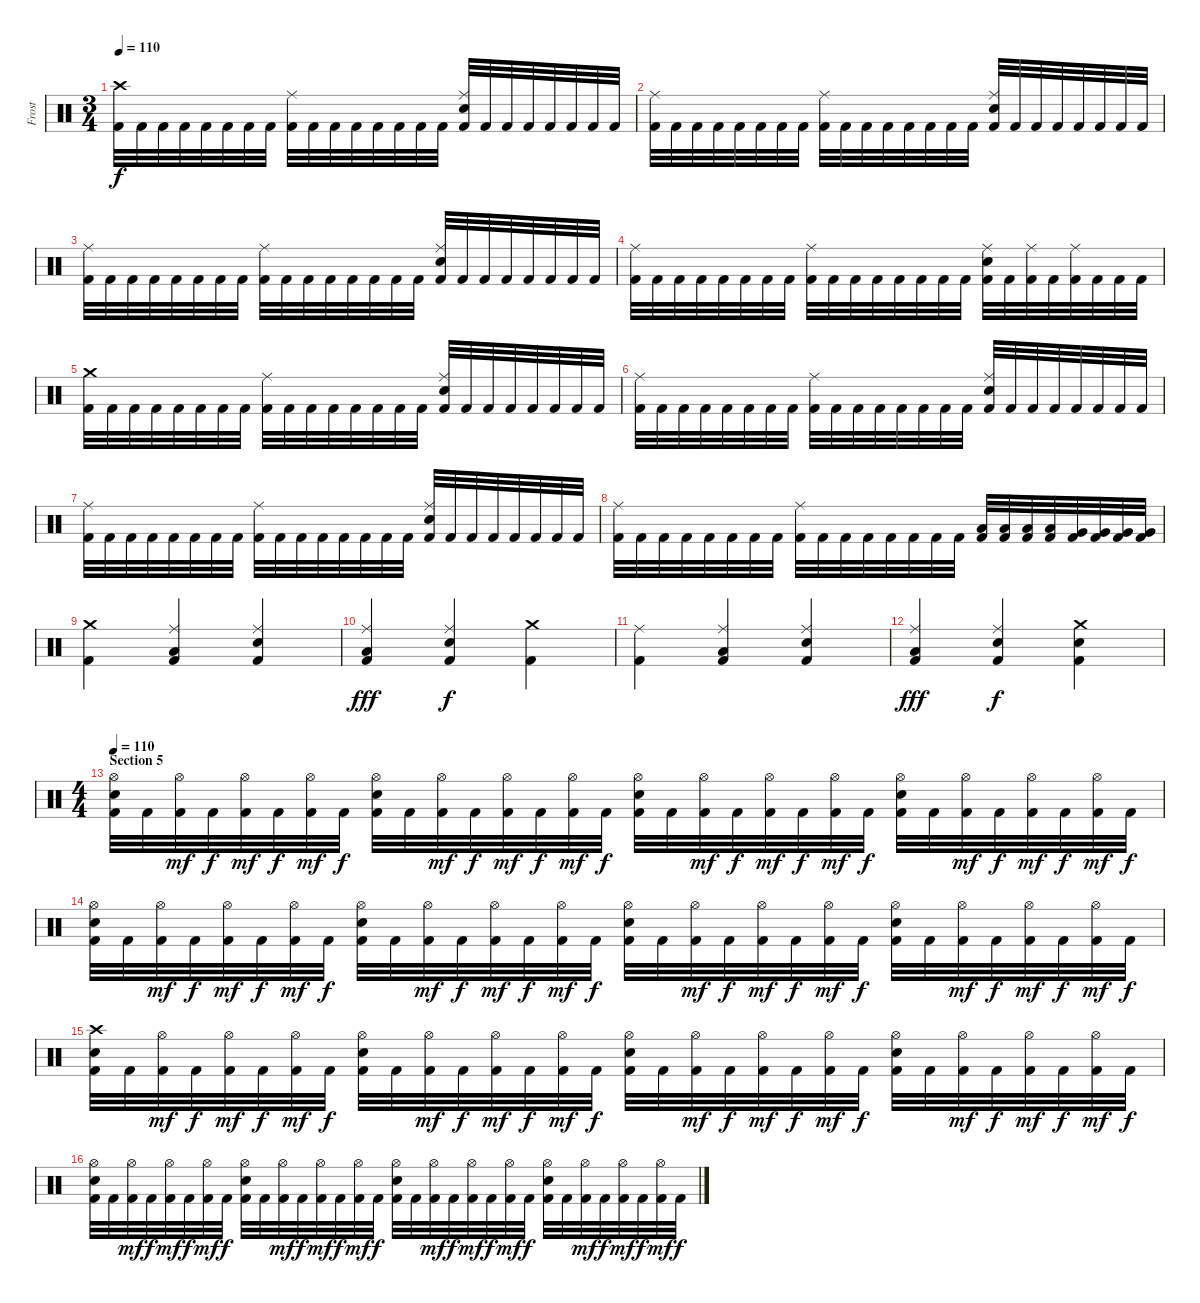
\track ("Frost" "Frost") {instrument percussion}
\staff {score}
\articulation defaults
\ts (3 4)
\tempo 110
\clef neutral
\ks c
("Crash high (hit)" "Kick (hit) 2").32{dy f} "Kick (hit) 2".32 "Kick (hit) 2".32 "Kick (hit) 2".32 "Kick (hit) 2".32 "Kick (hit) 2".32 "Kick (hit) 2".32 "Kick (hit) 2".32 ("Ride (middle)" "Kick (hit) 2").32 "Kick (hit) 2".32 "Kick (hit) 2".32 "Kick (hit) 2".32 "Kick (hit) 2".32 "Kick (hit) 2".32 "Kick (hit) 2".32 "Kick (hit) 2".32 ("Ride (middle)" "Electric Snare (hit)" "Kick (hit) 2").32 "Kick (hit) 2".32 "Kick (hit) 2".32 "Kick (hit) 2".32 "Kick (hit) 2".32 "Kick (hit) 2".32 "Kick (hit) 2".32 "Kick (hit) 2".32 |
("Ride (middle)" "Kick (hit) 2").32 "Kick (hit) 2".32 "Kick (hit) 2".32 "Kick (hit) 2".32 "Kick (hit) 2".32 "Kick (hit) 2".32 "Kick (hit) 2".32 "Kick (hit) 2".32 ("Ride (middle)" "Kick (hit) 2").32 "Kick (hit) 2".32 "Kick (hit) 2".32 "Kick (hit) 2".32 "Kick (hit) 2".32 "Kick (hit) 2".32 "Kick (hit) 2".32 "Kick (hit) 2".32 ("Ride (middle)" "Electric Snare (hit)" "Kick (hit) 2").32 "Kick (hit) 2".32 "Kick (hit) 2".32 "Kick (hit) 2".32 "Kick (hit) 2".32 "Kick (hit) 2".32 "Kick (hit) 2".32 "Kick (hit) 2".32 |
("Ride (middle)" "Kick (hit) 2").32 "Kick (hit) 2".32 "Kick (hit) 2".32 "Kick (hit) 2".32 "Kick (hit) 2".32 "Kick (hit) 2".32 "Kick (hit) 2".32 "Kick (hit) 2".32 ("Ride (middle)" "Kick (hit) 2").32 "Kick (hit) 2".32 "Kick (hit) 2".32 "Kick (hit) 2".32 "Kick (hit) 2".32 "Kick (hit) 2".32 "Kick (hit) 2".32 "Kick (hit) 2".32 ("Ride (middle)" "Electric Snare (hit)" "Kick (hit) 2").32 "Kick (hit) 2".32 "Kick (hit) 2".32 "Kick (hit) 2".32 "Kick (hit) 2".32 "Kick (hit) 2".32 "Kick (hit) 2".32 "Kick (hit) 2".32 |
("Ride (middle)" "Kick (hit) 2").32 "Kick (hit) 2".32 "Kick (hit) 2".32 "Kick (hit) 2".32 "Kick (hit) 2".32 "Kick (hit) 2".32 "Kick (hit) 2".32 "Kick (hit) 2".32 ("Ride (middle)" "Kick (hit) 2").32 "Kick (hit) 2".32 "Kick (hit) 2".32 "Kick (hit) 2".32 "Kick (hit) 2".32 "Kick (hit) 2".32 "Kick (hit) 2".32 "Kick (hit) 2".32 ("Ride (middle)" "Electric Snare (hit)" "Kick (hit) 2").32 "Kick (hit) 2".32 ("Ride (middle)" "Kick (hit) 2").32 "Kick (hit) 2".32 ("Ride (middle)" "Kick (hit) 2").32 "Kick (hit) 2".32 "Kick (hit) 2".32 "Kick (hit) 2".32 |
("Crash medium (hit)" "Kick (hit) 2").32 "Kick (hit) 2".32 "Kick (hit) 2".32 "Kick (hit) 2".32 "Kick (hit) 2".32 "Kick (hit) 2".32 "Kick (hit) 2".32 "Kick (hit) 2".32 ("Ride (middle)" "Kick (hit) 2").32 "Kick (hit) 2".32 "Kick (hit) 2".32 "Kick (hit) 2".32 "Kick (hit) 2".32 "Kick (hit) 2".32 "Kick (hit) 2".32 "Kick (hit) 2".32 ("Ride (middle)" "Electric Snare (hit)" "Kick (hit) 2").32 "Kick (hit) 2".32 "Kick (hit) 2".32 "Kick (hit) 2".32 "Kick (hit) 2".32 "Kick (hit) 2".32 "Kick (hit) 2".32 "Kick (hit) 2".32 |
("Ride (middle)" "Kick (hit) 2").32 "Kick (hit) 2".32 "Kick (hit) 2".32 "Kick (hit) 2".32 "Kick (hit) 2".32 "Kick (hit) 2".32 "Kick (hit) 2".32 "Kick (hit) 2".32 ("Ride (middle)" "Kick (hit) 2").32 "Kick (hit) 2".32 "Kick (hit) 2".32 "Kick (hit) 2".32 "Kick (hit) 2".32 "Kick (hit) 2".32 "Kick (hit) 2".32 "Kick (hit) 2".32 ("Ride (middle)" "Electric Snare (hit)" "Kick (hit) 2").32 "Kick (hit) 2".32 "Kick (hit) 2".32 "Kick (hit) 2".32 "Kick (hit) 2".32 "Kick (hit) 2".32 "Kick (hit) 2".32 "Kick (hit) 2".32 |
("Ride (middle)" "Kick (hit) 2").32 "Kick (hit) 2".32 "Kick (hit) 2".32 "Kick (hit) 2".32 "Kick (hit) 2".32 "Kick (hit) 2".32 "Kick (hit) 2".32 "Kick (hit) 2".32 ("Ride (middle)" "Kick (hit) 2").32 "Kick (hit) 2".32 "Kick (hit) 2".32 "Kick (hit) 2".32 "Kick (hit) 2".32 "Kick (hit) 2".32 "Kick (hit) 2".32 "Kick (hit) 2".32 ("Ride (middle)" "Electric Snare (hit)" "Kick (hit) 2").32 "Kick (hit) 2".32 "Kick (hit) 2".32 "Kick (hit) 2".32 "Kick (hit) 2".32 "Kick (hit) 2".32 "Kick (hit) 2".32 "Kick (hit) 2".32 |
("Ride (middle)" "Kick (hit) 2").32 "Kick (hit) 2".32 "Kick (hit) 2".32 "Kick (hit) 2".32 "Kick (hit) 2".32 "Kick (hit) 2".32 "Kick (hit) 2".32 "Kick (hit) 2".32 ("Ride (middle)" "Kick (hit) 2").32 "Kick (hit) 2".32 "Kick (hit) 2".32 "Kick (hit) 2".32 "Kick (hit) 2".32 "Kick (hit) 2".32 "Kick (hit) 2".32 "Kick (hit) 2".32 ("Low Tom (hit)" "Kick (hit) 2").32 ("Low Tom (hit)" "Kick (hit) 2").32 ("Low Tom (hit)" "Kick (hit) 2").32 ("Low Tom (hit)" "Kick (hit) 2").32 ("Very Low Tom (hit)" "Kick (hit) 2").32 ("Very Low Tom (hit)" "Kick (hit) 2").32 ("Very Low Tom (hit)" "Kick (hit) 2").32 ("Very Low Tom (hit)" "Kick (hit) 2").32 |
("Crash medium (hit)" "Kick (hit) 2").4 ("Ride (middle)" "Low Floor Tom (hit)" "Kick (hit) 2").4 ("Ride (middle)" "Electric Snare (hit)" "Kick (hit) 2").4 |
("Ride (middle)" "Low Floor Tom (hit)" "Kick (hit) 2").4{dy fff} ("Ride (middle)" "Electric Snare (hit)" "Kick (hit) 2").4{dy f} ("Crash medium (hit)" "Kick (hit) 2").4 |
("Ride (middle)" "Kick (hit) 2").4 ("Ride (middle)" "Low Floor Tom (hit)" "Kick (hit) 2").4 ("Ride (middle)" "Electric Snare (hit)" "Kick (hit) 2").4 |
("Ride (middle)" "Low Floor Tom (hit)" "Kick (hit) 2").4{dy fff} ("Ride (middle)" "Electric Snare (hit)" "Kick (hit) 2").4{dy f} ("Crash medium (hit)" "Electric Snare (hit)" "Kick (hit) 2").4 |
\ts (4 4)
\section ("" "Section 5")
\tempo 110
("Hi-Hat (open)" "Electric Snare (hit)" "Kick (hit) 2").32 "Kick (hit) 2".32 ("Hi-Hat (open)" "Kick (hit) 2").32{dy mf} "Kick (hit) 2".32{dy f} ("Hi-Hat (open)" "Kick (hit) 2").32{dy mf} "Kick (hit) 2".32{dy f} ("Hi-Hat (open)" "Kick (hit) 2").32{dy mf} "Kick (hit) 2".32{dy f} ("Hi-Hat (open)" "Electric Snare (hit)" "Kick (hit) 2").32 "Kick (hit) 2".32 ("Hi-Hat (open)" "Kick (hit) 2").32{dy mf} "Kick (hit) 2".32{dy f} ("Hi-Hat (open)" "Kick (hit) 2").32{dy mf} "Kick (hit) 2".32{dy f} ("Hi-Hat (open)" "Kick (hit) 2").32{dy mf} "Kick (hit) 2".32{dy f} ("Hi-Hat (open)" "Electric Snare (hit)" "Kick (hit) 2").32 "Kick (hit) 2".32 ("Hi-Hat (open)" "Kick (hit) 2").32{dy mf} "Kick (hit) 2".32{dy f} ("Hi-Hat (open)" "Kick (hit) 2").32{dy mf} "Kick (hit) 2".32{dy f} ("Hi-Hat (open)" "Kick (hit) 2").32{dy mf} "Kick (hit) 2".32{dy f} ("Hi-Hat (open)" "Electric Snare (hit)" "Kick (hit) 2").32 "Kick (hit) 2".32 ("Hi-Hat (open)" "Kick (hit) 2").32{dy mf} "Kick (hit) 2".32{dy f} ("Hi-Hat (open)" "Kick (hit) 2").32{dy mf} "Kick (hit) 2".32{dy f} ("Hi-Hat (open)" "Kick (hit) 2").32{dy mf} "Kick (hit) 2".32{dy f} |
("Hi-Hat (open)" "Electric Snare (hit)" "Kick (hit) 2").32 "Kick (hit) 2".32 ("Hi-Hat (open)" "Kick (hit) 2").32{dy mf} "Kick (hit) 2".32{dy f} ("Hi-Hat (open)" "Kick (hit) 2").32{dy mf} "Kick (hit) 2".32{dy f} ("Hi-Hat (open)" "Kick (hit) 2").32{dy mf} "Kick (hit) 2".32{dy f} ("Hi-Hat (open)" "Electric Snare (hit)" "Kick (hit) 2").32 "Kick (hit) 2".32 ("Hi-Hat (open)" "Kick (hit) 2").32{dy mf} "Kick (hit) 2".32{dy f} ("Hi-Hat (open)" "Kick (hit) 2").32{dy mf} "Kick (hit) 2".32{dy f} ("Hi-Hat (open)" "Kick (hit) 2").32{dy mf} "Kick (hit) 2".32{dy f} ("Hi-Hat (open)" "Electric Snare (hit)" "Kick (hit) 2").32 "Kick (hit) 2".32 ("Hi-Hat (open)" "Kick (hit) 2").32{dy mf} "Kick (hit) 2".32{dy f} ("Hi-Hat (open)" "Kick (hit) 2").32{dy mf} "Kick (hit) 2".32{dy f} ("Hi-Hat (open)" "Kick (hit) 2").32{dy mf} "Kick (hit) 2".32{dy f} ("Hi-Hat (open)" "Electric Snare (hit)" "Kick (hit) 2").32 "Kick (hit) 2".32 ("Hi-Hat (open)" "Kick (hit) 2").32{dy mf} "Kick (hit) 2".32{dy f} ("Hi-Hat (open)" "Kick (hit) 2").32{dy mf} "Kick (hit) 2".32{dy f} ("Hi-Hat (open)" "Kick (hit) 2").32{dy mf} "Kick (hit) 2".32{dy f} |
("Crash high (hit)" "Electric Snare (hit)" "Kick (hit) 2").32 "Kick (hit) 2".32 ("Hi-Hat (open)" "Kick (hit) 2").32{dy mf} "Kick (hit) 2".32{dy f} ("Hi-Hat (open)" "Kick (hit) 2").32{dy mf} "Kick (hit) 2".32{dy f} ("Hi-Hat (open)" "Kick (hit) 2").32{dy mf} "Kick (hit) 2".32{dy f} ("Hi-Hat (open)" "Electric Snare (hit)" "Kick (hit) 2").32 "Kick (hit) 2".32 ("Hi-Hat (open)" "Kick (hit) 2").32{dy mf} "Kick (hit) 2".32{dy f} ("Hi-Hat (open)" "Kick (hit) 2").32{dy mf} "Kick (hit) 2".32{dy f} ("Hi-Hat (open)" "Kick (hit) 2").32{dy mf} "Kick (hit) 2".32{dy f} ("Hi-Hat (open)" "Electric Snare (hit)" "Kick (hit) 2").32 "Kick (hit) 2".32 ("Hi-Hat (open)" "Kick (hit) 2").32{dy mf} "Kick (hit) 2".32{dy f} ("Hi-Hat (open)" "Kick (hit) 2").32{dy mf} "Kick (hit) 2".32{dy f} ("Hi-Hat (open)" "Kick (hit) 2").32{dy mf} "Kick (hit) 2".32{dy f} ("Hi-Hat (open)" "Electric Snare (hit)" "Kick (hit) 2").32 "Kick (hit) 2".32 ("Hi-Hat (open)" "Kick (hit) 2").32{dy mf} "Kick (hit) 2".32{dy f} ("Hi-Hat (open)" "Kick (hit) 2").32{dy mf} "Kick (hit) 2".32{dy f} ("Hi-Hat (open)" "Kick (hit) 2").32{dy mf} "Kick (hit) 2".32{dy f} |
("Hi-Hat (open)" "Electric Snare (hit)" "Kick (hit) 2").32 "Kick (hit) 2".32 ("Hi-Hat (open)" "Kick (hit) 2").32{dy mf} "Kick (hit) 2".32{dy f} ("Hi-Hat (open)" "Kick (hit) 2").32{dy mf} "Kick (hit) 2".32{dy f} ("Hi-Hat (open)" "Kick (hit) 2").32{dy mf} "Kick (hit) 2".32{dy f} ("Hi-Hat (open)" "Electric Snare (hit)" "Kick (hit) 2").32 "Kick (hit) 2".32 ("Hi-Hat (open)" "Kick (hit) 2").32{dy mf} "Kick (hit) 2".32{dy f} ("Hi-Hat (open)" "Kick (hit) 2").32{dy mf} "Kick (hit) 2".32{dy f} ("Hi-Hat (open)" "Kick (hit) 2").32{dy mf} "Kick (hit) 2".32{dy f} ("Hi-Hat (open)" "Electric Snare (hit)" "Kick (hit) 2").32 "Kick (hit) 2".32 ("Hi-Hat (open)" "Kick (hit) 2").32{dy mf} "Kick (hit) 2".32{dy f} ("Hi-Hat (open)" "Kick (hit) 2").32{dy mf} "Kick (hit) 2".32{dy f} ("Hi-Hat (open)" "Kick (hit) 2").32{dy mf} "Kick (hit) 2".32{dy f} ("Hi-Hat (open)" "Electric Snare (hit)" "Kick (hit) 2").32 "Kick (hit) 2".32 ("Hi-Hat (open)" "Kick (hit) 2").32{dy mf} "Kick (hit) 2".32{dy f} ("Hi-Hat (open)" "Kick (hit) 2").32{dy mf} "Kick (hit) 2".32{dy f} ("Hi-Hat (open)" "Kick (hit) 2").32{dy mf} "Kick (hit) 2".32{dy f}
